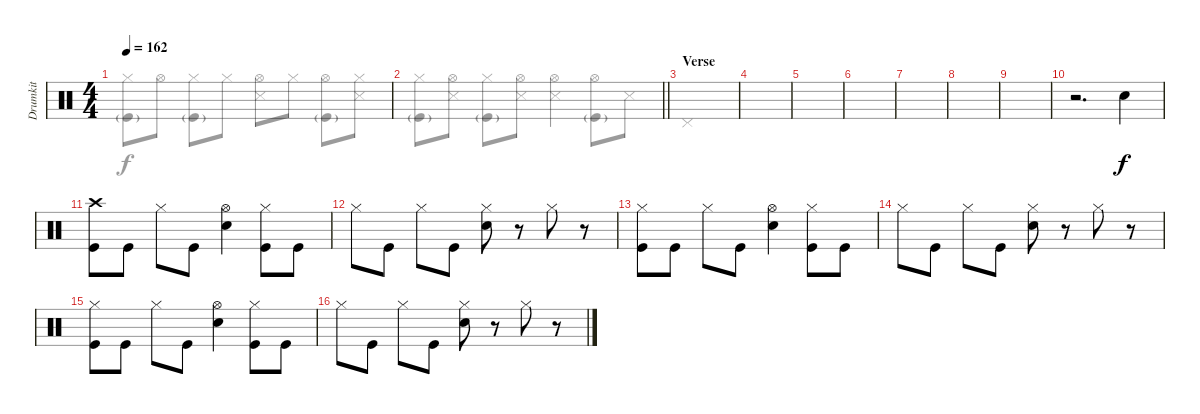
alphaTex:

\track ("Drumkit" "Drumkit") {instrument percussion}
\staff {score}
\articulation defaults
\voice
\ts (4 4)
\tempo 162
\clef neutral
\ks c
|
\barLineRight lightlight
|
\section ("" "Verse")
|
|
|
|
|
|
|
r.2{d} "Snare (hit) 2".4 |
("Kick (hit)" "Crash high (hit)").8 "Kick (hit)".8 "Hi-Hat (closed)".8 "Kick (hit)".8 ("Snare (hit) 2" "Hi-Hat (open)").4 ("Kick (hit)" "Hi-Hat (closed)").8 "Kick (hit)".8 |
"Hi-Hat (closed)".8 "Kick (hit)".8 "Hi-Hat (closed)".8 "Kick (hit)".8 ("Snare (hit) 2" "Hi-Hat (closed)").8 r.8 "Hi-Hat (closed)".8 r.8 |
("Kick (hit)" "Hi-Hat (closed)").8 "Kick (hit)".8 "Hi-Hat (closed)".8 "Kick (hit)".8 ("Snare (hit) 2" "Hi-Hat (open)").4 ("Kick (hit)" "Hi-Hat (closed)").8 "Kick (hit)".8 |
"Hi-Hat (closed)".8 "Kick (hit)".8 "Hi-Hat (closed)".8 "Kick (hit)".8 ("Snare (hit) 2" "Hi-Hat (closed)").8 r.8 "Hi-Hat (closed)".8 r.8 |
("Kick (hit)" "Hi-Hat (closed)").8 "Kick (hit)".8 "Hi-Hat (closed)".8 "Kick (hit)".8 ("Snare (hit) 2" "Hi-Hat (open)").4 ("Kick (hit)" "Hi-Hat (closed)").8 "Kick (hit)".8 |
"Hi-Hat (closed)".8 "Kick (hit)".8 "Hi-Hat (closed)".8 "Kick (hit)".8 ("Snare (hit) 2" "Hi-Hat (closed)").8 r.8 "Hi-Hat (closed)".8 r.8
\voice
\clef neutral
\ottava regular
\simile none
\ks c
("Kick (hit)"{g} "Hi-Hat (closed)").8{dy f} "Hi-Hat (open)".8 ("Kick (hit)"{g} "Hi-Hat (closed)").8 "Hi-Hat (closed)".8 ("Snare (side stick) 3" "Hi-Hat (open)").8 "Hi-Hat (closed)".8 ("Kick (hit)"{g} "Hi-Hat (open)").8 ("Snare (side stick) 3" "Hi-Hat (closed)").8 |
\barLineRight lightlight
("Kick (hit)"{g} "Hi-Hat (closed)").8 ("Snare (side stick) 3" "Hi-Hat (open)").8 ("Kick (hit)"{g} "Hi-Hat (closed)").8 ("Snare (side stick) 3" "Hi-Hat (open)").8 ("Snare (side stick) 3" "Hi-Hat (open)").4 ("Kick (hit)"{g} "Hi-Hat (open)").8 "Snare (side stick) 3".8 |
"Pedal Hi-Hat (hit)".1 |
|
|
|
|
|
|
|
|
|
|
|
|
